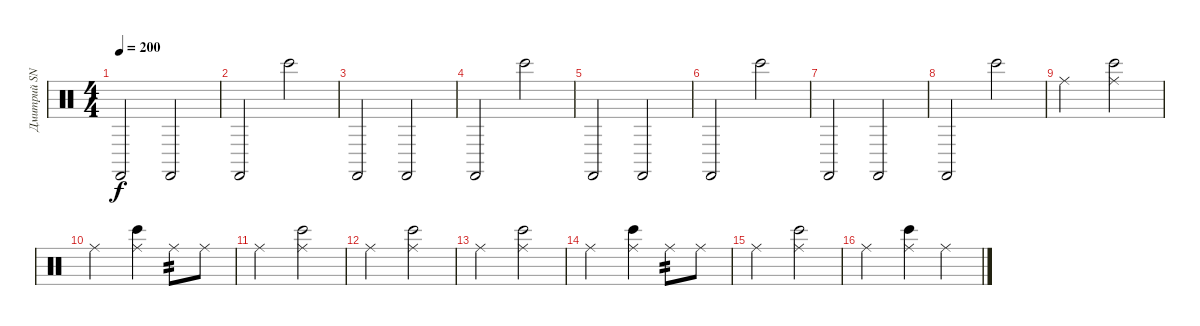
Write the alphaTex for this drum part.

\track ("Дмитрий SNAKE Хакимов" "Дмитрий SN") {instrument percussion}
\staff {score}
\articulation defaults
\ts (4 4)
\tempo 200
\clef neutral
\ks c "Castanets (hit)".2{dy f} "Castanets (hit)".2
|
"Castanets (hit)".2 "Bongo High (hit)".2 |
"Castanets (hit)".2 "Castanets (hit)".2 |
"Castanets (hit)".2 "Bongo High (hit)".2 |
"Castanets (hit)".2 "Castanets (hit)".2 |
"Castanets (hit)".2 "Bongo High (hit)".2 |
"Castanets (hit)".2 "Castanets (hit)".2 |
"Castanets (hit)".2 "Bongo High (hit)".2 |
"Ride (middle)".2 ("Ride (middle)" "Bongo High (hit)").2 |
"Ride (middle)".2 ("Ride (middle)" "Bongo High (hit)").4 "Ride (middle)".8{tp 2} "Ride (middle)".8 |
"Ride (middle)".2 ("Ride (middle)" "Bongo High (hit)").2 |
"Ride (middle)".2 ("Ride (middle)" "Bongo High (hit)").2 |
"Ride (middle)".2 ("Ride (middle)" "Bongo High (hit)").2 |
"Ride (middle)".2 ("Ride (middle)" "Bongo High (hit)").4 "Ride (middle)".8{tp 2} "Ride (middle)".8 |
"Ride (middle)".2 ("Ride (middle)" "Bongo High (hit)").2 |
"Ride (middle)".2 ("Ride (middle)" "Bongo High (hit)").4 "Ride (middle)".4
